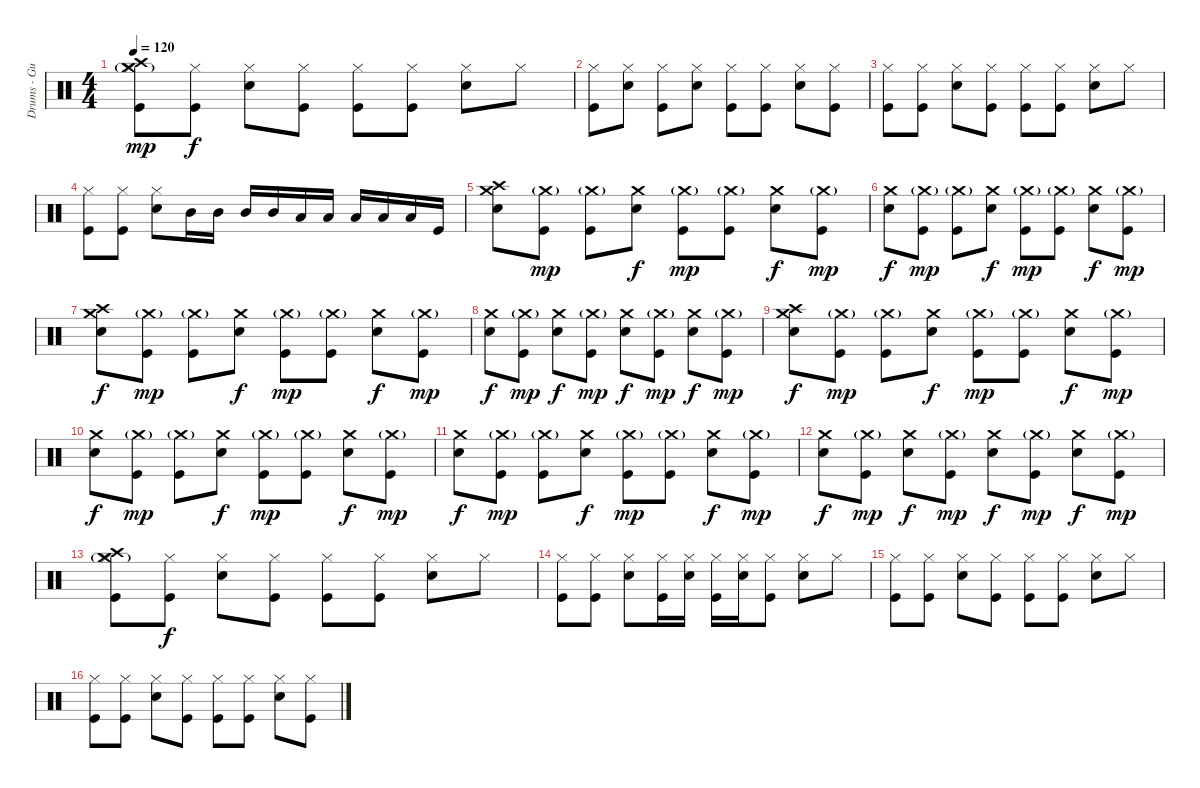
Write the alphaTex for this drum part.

\track ("Drums - Gustav" "Drums - Gu") {instrument percussion}
\staff {score}
\articulation defaults
\ts (4 4)
\tempo 120
\clef neutral
\ks c
("Kick (hit)" "Hi-Hat (closed)"{g} "Crash high (hit)" "Crash medium (hit)").8{dy mp} ("Kick (hit)" "Hi-Hat (closed)").8{dy f} ("Hi-Hat (closed)" "Snare (hit) 2").8 ("Kick (hit)" "Hi-Hat (closed)").8 ("Kick (hit)" "Hi-Hat (closed)").8 ("Kick (hit)" "Hi-Hat (closed)").8 ("Hi-Hat (closed)" "Snare (hit) 2").8 "Hi-Hat (closed)".8 |
("Kick (hit)" "Hi-Hat (closed)").8 ("Hi-Hat (closed)" "Snare (hit) 2").8 ("Kick (hit)" "Hi-Hat (closed)").8 ("Hi-Hat (closed)" "Snare (hit) 2").8 ("Kick (hit)" "Hi-Hat (closed)").8 ("Kick (hit)" "Hi-Hat (closed)").8 ("Hi-Hat (closed)" "Snare (hit) 2").8 ("Kick (hit)" "Hi-Hat (closed)").8 |
("Kick (hit)" "Hi-Hat (closed)").8 ("Kick (hit)" "Hi-Hat (closed)").8 ("Hi-Hat (closed)" "Snare (hit) 2").8 ("Kick (hit)" "Hi-Hat (closed)").8 ("Kick (hit)" "Hi-Hat (closed)").8 ("Kick (hit)" "Hi-Hat (closed)").8 ("Hi-Hat (closed)" "Snare (hit) 2").8 "Hi-Hat (closed)".8 |
("Kick (hit)" "Hi-Hat (closed)").8 ("Kick (hit)" "Hi-Hat (closed)").8 ("Hi-Hat (closed)" "Snare (hit) 2").8 "Mid Tom (hit)".16 "Mid Tom (hit)".16 "Mid Tom (hit)".16 "Mid Tom (hit)".16 "Low Tom (hit)".16 "Low Tom (hit)".16 "Low Tom (hit)".16 "Low Tom (hit)".16 "Low Floor Tom (hit)".16 "Kick (hit)".16 |
("Snare (hit) 2" "Crash high (hit)" "Crash medium (hit)").8 ("Kick (hit)" "Crash medium (hit)"{g}).8{dy mp} ("Kick (hit)" "Crash medium (hit)"{g}).8 ("Snare (hit) 2" "Crash medium (hit)").8{dy f} ("Kick (hit)" "Crash medium (hit)"{g}).8{dy mp} ("Kick (hit)" "Crash medium (hit)"{g}).8 ("Snare (hit) 2" "Crash medium (hit)").8{dy f} ("Kick (hit)" "Crash medium (hit)"{g}).8{dy mp} |
("Snare (hit) 2" "Crash medium (hit)").8{dy f} ("Kick (hit)" "Crash medium (hit)"{g}).8{dy mp} ("Kick (hit)" "Crash medium (hit)"{g}).8 ("Snare (hit) 2" "Crash medium (hit)").8{dy f} ("Kick (hit)" "Crash medium (hit)"{g}).8{dy mp} ("Kick (hit)" "Crash medium (hit)"{g}).8 ("Snare (hit) 2" "Crash medium (hit)").8{dy f} ("Kick (hit)" "Crash medium (hit)"{g}).8{dy mp} |
("Snare (hit) 2" "Crash high (hit)" "Crash medium (hit)").8{dy f} ("Kick (hit)" "Crash medium (hit)"{g}).8{dy mp} ("Kick (hit)" "Crash medium (hit)"{g}).8 ("Snare (hit) 2" "Crash medium (hit)").8{dy f} ("Kick (hit)" "Crash medium (hit)"{g}).8{dy mp} ("Kick (hit)" "Crash medium (hit)"{g}).8 ("Snare (hit) 2" "Crash medium (hit)").8{dy f} ("Kick (hit)" "Crash medium (hit)"{g}).8{dy mp} |
("Snare (hit) 2" "Crash medium (hit)").8{dy f} ("Kick (hit)" "Crash medium (hit)"{g}).8{dy mp} ("Snare (hit) 2" "Crash medium (hit)").8{dy f} ("Kick (hit)" "Crash medium (hit)"{g}).8{dy mp} ("Snare (hit) 2" "Crash medium (hit)").8{dy f} ("Kick (hit)" "Crash medium (hit)"{g}).8{dy mp} ("Snare (hit) 2" "Crash medium (hit)").8{dy f} ("Kick (hit)" "Crash medium (hit)"{g}).8{dy mp} |
("Snare (hit) 2" "Crash high (hit)" "Crash medium (hit)").8{dy f} ("Kick (hit)" "Crash medium (hit)"{g}).8{dy mp} ("Kick (hit)" "Crash medium (hit)"{g}).8 ("Snare (hit) 2" "Crash medium (hit)").8{dy f} ("Kick (hit)" "Crash medium (hit)"{g}).8{dy mp} ("Kick (hit)" "Crash medium (hit)"{g}).8 ("Snare (hit) 2" "Crash medium (hit)").8{dy f} ("Kick (hit)" "Crash medium (hit)"{g}).8{dy mp} |
("Snare (hit) 2" "Crash medium (hit)").8{dy f} ("Kick (hit)" "Crash medium (hit)"{g}).8{dy mp} ("Kick (hit)" "Crash medium (hit)"{g}).8 ("Snare (hit) 2" "Crash medium (hit)").8{dy f} ("Kick (hit)" "Crash medium (hit)"{g}).8{dy mp} ("Kick (hit)" "Crash medium (hit)"{g}).8 ("Snare (hit) 2" "Crash medium (hit)").8{dy f} ("Kick (hit)" "Crash medium (hit)"{g}).8{dy mp} |
("Snare (hit) 2" "Crash medium (hit)").8{dy f} ("Kick (hit)" "Crash medium (hit)"{g}).8{dy mp} ("Kick (hit)" "Crash medium (hit)"{g}).8 ("Snare (hit) 2" "Crash medium (hit)").8{dy f} ("Kick (hit)" "Crash medium (hit)"{g}).8{dy mp} ("Kick (hit)" "Crash medium (hit)"{g}).8 ("Snare (hit) 2" "Crash medium (hit)").8{dy f} ("Kick (hit)" "Crash medium (hit)"{g}).8{dy mp} |
("Snare (hit) 2" "Crash medium (hit)").8{dy f} ("Kick (hit)" "Crash medium (hit)"{g}).8{dy mp} ("Snare (hit) 2" "Crash medium (hit)").8{dy f} ("Kick (hit)" "Crash medium (hit)"{g}).8{dy mp} ("Snare (hit) 2" "Crash medium (hit)").8{dy f} ("Kick (hit)" "Crash medium (hit)"{g}).8{dy mp} ("Snare (hit) 2" "Crash medium (hit)").8{dy f} ("Kick (hit)" "Crash medium (hit)"{g}).8{dy mp} |
("Kick (hit)" "Hi-Hat (closed)"{g} "Crash high (hit)" "Crash medium (hit)").8 ("Kick (hit)" "Hi-Hat (closed)").8{dy f} ("Hi-Hat (closed)" "Snare (hit) 2").8 ("Kick (hit)" "Hi-Hat (closed)").8 ("Kick (hit)" "Hi-Hat (closed)").8 ("Kick (hit)" "Hi-Hat (closed)").8 ("Hi-Hat (closed)" "Snare (hit) 2").8 "Hi-Hat (closed)".8 |
("Kick (hit)" "Hi-Hat (closed)").8 ("Kick (hit)" "Hi-Hat (closed)").8 ("Hi-Hat (closed)" "Snare (hit) 2").8 ("Kick (hit)" "Hi-Hat (closed)").16 ("Hi-Hat (closed)" "Snare (hit) 2").16 ("Kick (hit)" "Hi-Hat (closed)").16 ("Hi-Hat (closed)" "Snare (hit) 2").16 ("Kick (hit)" "Hi-Hat (closed)").8 ("Hi-Hat (closed)" "Snare (hit) 2").8 "Hi-Hat (closed)".8 |
("Kick (hit)" "Hi-Hat (closed)").8 ("Kick (hit)" "Hi-Hat (closed)").8 ("Hi-Hat (closed)" "Snare (hit) 2").8 ("Kick (hit)" "Hi-Hat (closed)").8 ("Kick (hit)" "Hi-Hat (closed)").8 ("Kick (hit)" "Hi-Hat (closed)").8 ("Hi-Hat (closed)" "Snare (hit) 2").8 "Hi-Hat (closed)".8 |
("Kick (hit)" "Hi-Hat (closed)").8 ("Kick (hit)" "Hi-Hat (closed)").8 ("Hi-Hat (closed)" "Snare (hit) 2").8 ("Kick (hit)" "Hi-Hat (closed)").8 ("Kick (hit)" "Hi-Hat (closed)").8 ("Kick (hit)" "Hi-Hat (closed)").8 ("Hi-Hat (closed)" "Snare (hit) 2").8 ("Kick (hit)" "Hi-Hat (closed)").8
